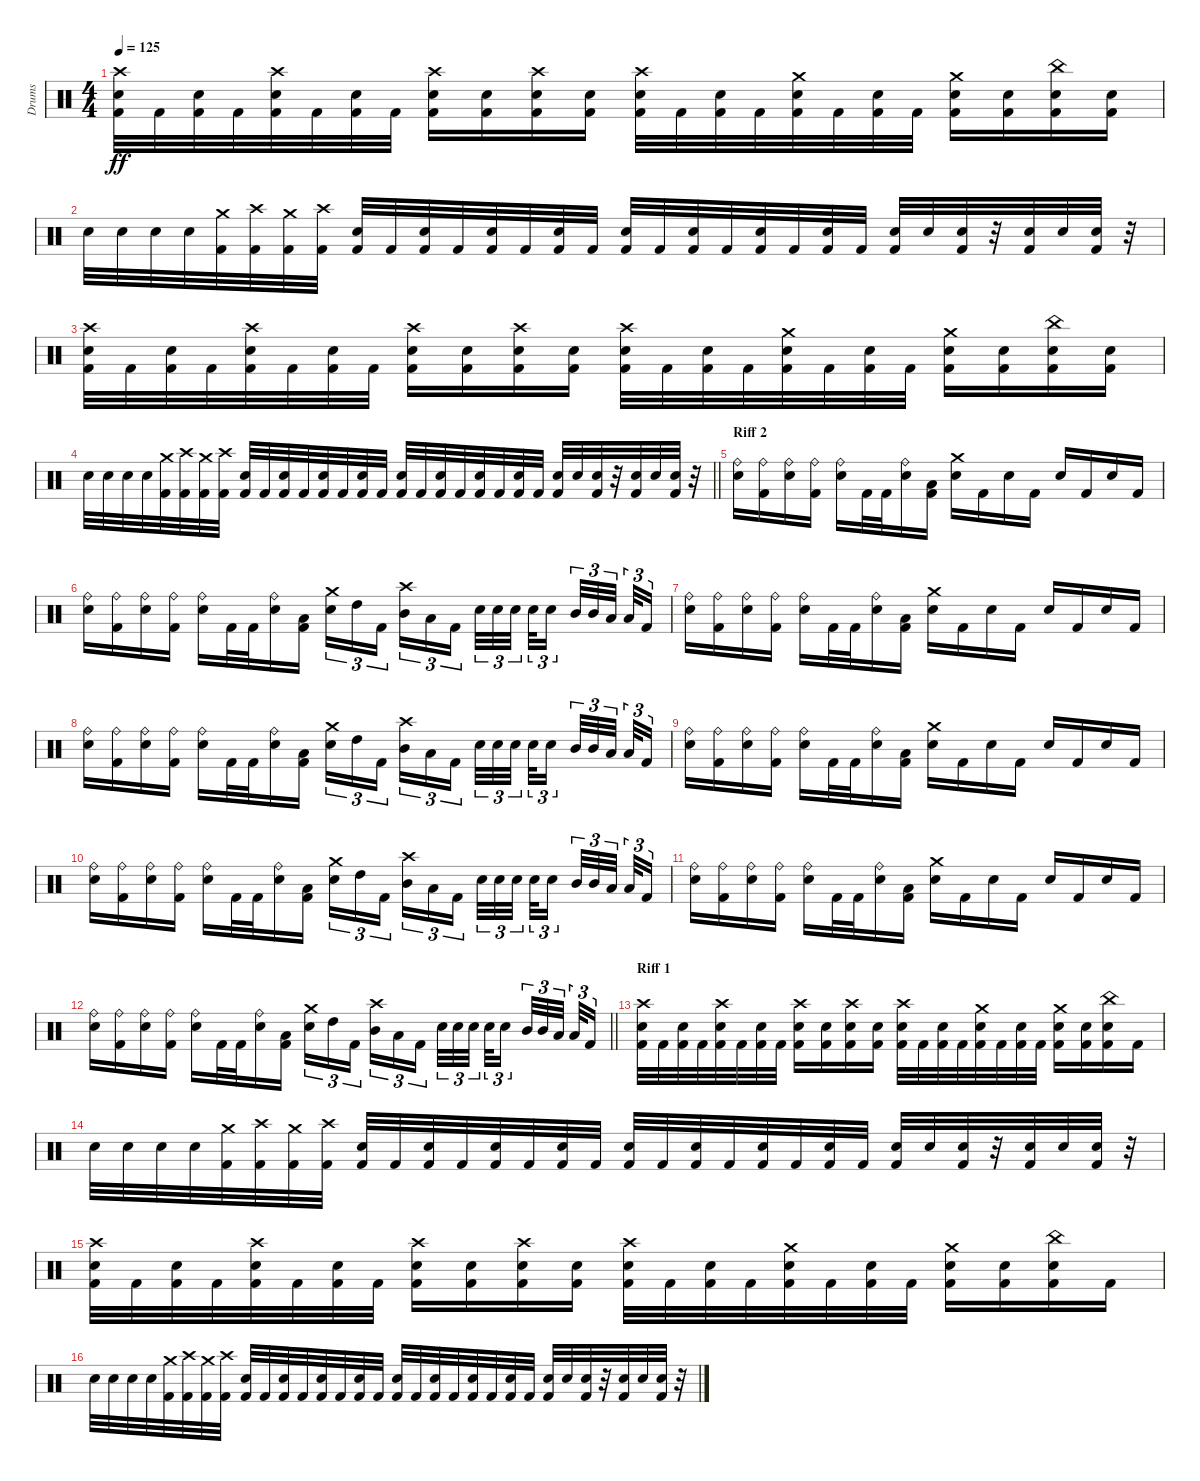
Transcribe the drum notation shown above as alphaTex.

\track ("Drums" "Drums") {instrument percussion}
\staff {score}
\articulation defaults
\ts (4 4)
\tempo 125
\clef neutral
\ks c
("Crash high (hit)" "Kick (hit) 2" "Snare (hit) 2").32{dy ff} "Kick (hit) 2".32 ("Kick (hit) 2" "Snare (hit) 2").32 "Kick (hit) 2".32 ("Crash high (hit)" "Kick (hit) 2" "Snare (hit) 2").32 "Kick (hit) 2".32 ("Kick (hit) 2" "Snare (hit) 2").32 "Kick (hit) 2".32 ("Crash high (hit)" "Kick (hit) 2" "Snare (hit) 2").16 ("Kick (hit) 2" "Snare (hit) 2").16 ("Crash high (hit)" "Kick (hit) 2" "Snare (hit) 2").16 ("Kick (hit) 2" "Snare (hit) 2").16 ("Crash high (hit)" "Kick (hit) 2" "Snare (hit) 2").32 "Kick (hit) 2".32 ("Kick (hit) 2" "Snare (hit) 2").32 "Kick (hit) 2".32 ("Crash medium (hit)" "Kick (hit) 2" "Snare (hit) 2").32 "Kick (hit) 2".32 ("Kick (hit) 2" "Snare (hit) 2").32 "Kick (hit) 2".32 ("Crash medium (hit)" "Kick (hit) 2" "Snare (hit) 2").16 ("Kick (hit) 2" "Snare (hit) 2").16 ("China (hit)" "Kick (hit) 2" "Snare (hit) 2").16 ("Kick (hit) 2" "Snare (hit) 2").16 |
"Snare (hit) 2".32 "Snare (hit) 2".32 "Snare (hit) 2".32 "Snare (hit) 2".32 ("Crash medium (hit)" "Kick (hit) 2").32 ("Crash high (hit)" "Kick (hit) 2").32 ("Crash medium (hit)" "Kick (hit) 2").32 ("Crash high (hit)" "Kick (hit) 2").32 ("Kick (hit) 2" "Snare (hit) 2").32 "Kick (hit) 2".32 ("Kick (hit) 2" "Snare (hit) 2").32 "Kick (hit) 2".32 ("Kick (hit) 2" "Snare (hit) 2").32 "Kick (hit) 2".32 ("Kick (hit) 2" "Snare (hit) 2").32 "Kick (hit) 2".32 ("Kick (hit) 2" "Snare (hit) 2").32 "Kick (hit) 2".32 ("Kick (hit) 2" "Snare (hit) 2").32 "Kick (hit) 2".32 ("Kick (hit) 2" "Snare (hit) 2").32 "Kick (hit) 2".32 ("Kick (hit) 2" "Snare (hit) 2").32 "Kick (hit) 2".32 ("Kick (hit) 2" "Snare (hit) 2").32 "Snare (hit) 2".32 ("Kick (hit) 2" "Snare (hit) 2").32 r.32 ("Kick (hit) 2" "Snare (hit) 2").32 "Snare (hit) 2".32 ("Kick (hit) 2" "Snare (hit) 2").32 r.32 |
("Crash high (hit)" "Kick (hit) 2" "Snare (hit) 2").32 "Kick (hit) 2".32 ("Kick (hit) 2" "Snare (hit) 2").32 "Kick (hit) 2".32 ("Crash high (hit)" "Kick (hit) 2" "Snare (hit) 2").32 "Kick (hit) 2".32 ("Kick (hit) 2" "Snare (hit) 2").32 "Kick (hit) 2".32 ("Crash high (hit)" "Kick (hit) 2" "Snare (hit) 2").16 ("Kick (hit) 2" "Snare (hit) 2").16 ("Crash high (hit)" "Kick (hit) 2" "Snare (hit) 2").16 ("Kick (hit) 2" "Snare (hit) 2").16 ("Crash high (hit)" "Kick (hit) 2" "Snare (hit) 2").32 "Kick (hit) 2".32 ("Kick (hit) 2" "Snare (hit) 2").32 "Kick (hit) 2".32 ("Crash medium (hit)" "Kick (hit) 2" "Snare (hit) 2").32 "Kick (hit) 2".32 ("Kick (hit) 2" "Snare (hit) 2").32 "Kick (hit) 2".32 ("Crash medium (hit)" "Kick (hit) 2" "Snare (hit) 2").16 ("Kick (hit) 2" "Snare (hit) 2").16 ("China (hit)" "Kick (hit) 2" "Snare (hit) 2").16 ("Kick (hit) 2" "Snare (hit) 2").16 |
\barLineRight lightlight "Snare (hit) 2".32 "Snare (hit) 2".32 "Snare (hit) 2".32 "Snare (hit) 2".32
("Crash medium (hit)" "Kick (hit) 2").32 ("Crash high (hit)" "Kick (hit) 2").32 ("Crash medium (hit)" "Kick (hit) 2").32 ("Crash high (hit)" "Kick (hit) 2").32 ("Kick (hit) 2" "Snare (hit) 2").32 "Kick (hit) 2".32 ("Kick (hit) 2" "Snare (hit) 2").32 "Kick (hit) 2".32 ("Kick (hit) 2" "Snare (hit) 2").32 "Kick (hit) 2".32 ("Kick (hit) 2" "Snare (hit) 2").32 "Kick (hit) 2".32 ("Kick (hit) 2" "Snare (hit) 2").32 "Kick (hit) 2".32 ("Kick (hit) 2" "Snare (hit) 2").32 "Kick (hit) 2".32 ("Kick (hit) 2" "Snare (hit) 2").32 "Kick (hit) 2".32 ("Kick (hit) 2" "Snare (hit) 2").32 "Kick (hit) 2".32 ("Kick (hit) 2" "Snare (hit) 2").32 "Snare (hit) 2".32 ("Kick (hit) 2" "Snare (hit) 2").32 r.32 ("Kick (hit) 2" "Snare (hit) 2").32 "Snare (hit) 2".32 ("Kick (hit) 2" "Snare (hit) 2").32 r.32 |
\section ("" "Riff 2")
("Snare (hit) 2" "Ride (bell)").16 ("Kick (hit) 2" "Ride (bell)").16 ("Snare (hit) 2" "Ride (bell)").16 ("Kick (hit) 2" "Ride (bell)").16 ("Snare (hit) 2" "Ride (bell)").16 "Kick (hit) 2".32 "Kick (hit) 2".32 ("Snare (hit) 2" "Ride (bell)").16 ("Kick (hit) 2" "Low Tom (hit)").16 ("Crash medium (hit)" "Snare (hit) 2").16 "Kick (hit) 2".16 "Snare (hit) 2".16 "Kick (hit) 2".16 "Snare (hit) 2".16 "Kick (hit) 2".16 "Snare (hit) 2".16 "Kick (hit) 2".16 |
("Snare (hit) 2" "Ride (bell)").16 ("Kick (hit) 2" "Ride (bell)").16 ("Snare (hit) 2" "Ride (bell)").16 ("Kick (hit) 2" "Ride (bell)").16 ("Snare (hit) 2" "Ride (bell)").16 "Kick (hit) 2".32 "Kick (hit) 2".32 ("Snare (hit) 2" "Ride (bell)").16 ("Kick (hit) 2" "Low Tom (hit)").16 ("Crash medium (hit)" "Snare (hit) 2").16{tu (3 2)} "High Tom (hit)".16{tu (3 2)} "Kick (hit) 2".16{tu (3 2) beam splitsecondary} ("Crash high (hit)" "Mid Tom (hit)").16{tu (3 2)} "Low Tom (hit)".16{tu (3 2)} "Kick (hit) 2".16{tu (3 2)} "Snare (hit) 2".32{tu (3 2)} "Snare (hit) 2".32{tu (3 2)} "Snare (hit) 2".32{tu (3 2) beam splitsecondary} "Snare (hit) 2".32{tu (3 2)} "Snare (hit) 2".16{tu (3 2) beam splitsecondary} "Mid Tom (hit)".32{tu (3 2)} "Mid Tom (hit)".32{tu (3 2)} "Low Tom (hit)".32{tu (3 2) beam splitsecondary} "Low Tom (hit)".32{tu (3 2)} "Kick (hit) 2".16{tu (3 2)} |
("Snare (hit) 2" "Ride (bell)").16 ("Kick (hit) 2" "Ride (bell)").16 ("Snare (hit) 2" "Ride (bell)").16 ("Kick (hit) 2" "Ride (bell)").16 ("Snare (hit) 2" "Ride (bell)").16 "Kick (hit) 2".32 "Kick (hit) 2".32 ("Snare (hit) 2" "Ride (bell)").16 ("Kick (hit) 2" "Low Tom (hit)").16 ("Crash medium (hit)" "Snare (hit) 2").16 "Kick (hit) 2".16 "Snare (hit) 2".16 "Kick (hit) 2".16 "Snare (hit) 2".16 "Kick (hit) 2".16 "Snare (hit) 2".16 "Kick (hit) 2".16 |
("Snare (hit) 2" "Ride (bell)").16 ("Kick (hit) 2" "Ride (bell)").16 ("Snare (hit) 2" "Ride (bell)").16 ("Kick (hit) 2" "Ride (bell)").16 ("Snare (hit) 2" "Ride (bell)").16 "Kick (hit) 2".32 "Kick (hit) 2".32 ("Snare (hit) 2" "Ride (bell)").16 ("Kick (hit) 2" "Low Tom (hit)").16 ("Crash medium (hit)" "Snare (hit) 2").16{tu (3 2)} "High Tom (hit)".16{tu (3 2)} "Kick (hit) 2".16{tu (3 2) beam splitsecondary} ("Crash high (hit)" "Mid Tom (hit)").16{tu (3 2)} "Low Tom (hit)".16{tu (3 2)} "Kick (hit) 2".16{tu (3 2)} "Snare (hit) 2".32{tu (3 2)} "Snare (hit) 2".32{tu (3 2)} "Snare (hit) 2".32{tu (3 2) beam splitsecondary} "Snare (hit) 2".32{tu (3 2)} "Snare (hit) 2".16{tu (3 2) beam splitsecondary} "Mid Tom (hit)".32{tu (3 2)} "Mid Tom (hit)".32{tu (3 2)} "Low Tom (hit)".32{tu (3 2) beam splitsecondary} "Low Tom (hit)".32{tu (3 2)} "Kick (hit) 2".16{tu (3 2)} |
("Snare (hit) 2" "Ride (bell)").16 ("Kick (hit) 2" "Ride (bell)").16 ("Snare (hit) 2" "Ride (bell)").16 ("Kick (hit) 2" "Ride (bell)").16 ("Snare (hit) 2" "Ride (bell)").16 "Kick (hit) 2".32 "Kick (hit) 2".32 ("Snare (hit) 2" "Ride (bell)").16 ("Kick (hit) 2" "Low Tom (hit)").16 ("Crash medium (hit)" "Snare (hit) 2").16 "Kick (hit) 2".16 "Snare (hit) 2".16 "Kick (hit) 2".16 "Snare (hit) 2".16 "Kick (hit) 2".16 "Snare (hit) 2".16 "Kick (hit) 2".16 |
("Snare (hit) 2" "Ride (bell)").16 ("Kick (hit) 2" "Ride (bell)").16 ("Snare (hit) 2" "Ride (bell)").16 ("Kick (hit) 2" "Ride (bell)").16 ("Snare (hit) 2" "Ride (bell)").16 "Kick (hit) 2".32 "Kick (hit) 2".32 ("Snare (hit) 2" "Ride (bell)").16 ("Kick (hit) 2" "Low Tom (hit)").16 ("Crash medium (hit)" "Snare (hit) 2").16{tu (3 2)} "High Tom (hit)".16{tu (3 2)} "Kick (hit) 2".16{tu (3 2) beam splitsecondary} ("Crash high (hit)" "Mid Tom (hit)").16{tu (3 2)} "Low Tom (hit)".16{tu (3 2)} "Kick (hit) 2".16{tu (3 2)} "Snare (hit) 2".32{tu (3 2)} "Snare (hit) 2".32{tu (3 2)} "Snare (hit) 2".32{tu (3 2) beam splitsecondary} "Snare (hit) 2".32{tu (3 2)} "Snare (hit) 2".16{tu (3 2) beam splitsecondary} "Mid Tom (hit)".32{tu (3 2)} "Mid Tom (hit)".32{tu (3 2)} "Low Tom (hit)".32{tu (3 2) beam splitsecondary} "Low Tom (hit)".32{tu (3 2)} "Kick (hit) 2".16{tu (3 2)} |
("Snare (hit) 2" "Ride (bell)").16 ("Kick (hit) 2" "Ride (bell)").16 ("Snare (hit) 2" "Ride (bell)").16 ("Kick (hit) 2" "Ride (bell)").16 ("Snare (hit) 2" "Ride (bell)").16 "Kick (hit) 2".32 "Kick (hit) 2".32 ("Snare (hit) 2" "Ride (bell)").16 ("Kick (hit) 2" "Low Tom (hit)").16 ("Crash medium (hit)" "Snare (hit) 2").16 "Kick (hit) 2".16 "Snare (hit) 2".16 "Kick (hit) 2".16 "Snare (hit) 2".16 "Kick (hit) 2".16 "Snare (hit) 2".16 "Kick (hit) 2".16 |
\barLineRight lightlight
("Snare (hit) 2" "Ride (bell)").16 ("Kick (hit) 2" "Ride (bell)").16 ("Snare (hit) 2" "Ride (bell)").16 ("Kick (hit) 2" "Ride (bell)").16 ("Snare (hit) 2" "Ride (bell)").16 "Kick (hit) 2".32 "Kick (hit) 2".32 ("Snare (hit) 2" "Ride (bell)").16 ("Kick (hit) 2" "Low Tom (hit)").16 ("Crash medium (hit)" "Snare (hit) 2").16{tu (3 2)} "High Tom (hit)".16{tu (3 2)} "Kick (hit) 2".16{tu (3 2) beam splitsecondary} ("Crash high (hit)" "Mid Tom (hit)").16{tu (3 2)} "Low Tom (hit)".16{tu (3 2)} "Kick (hit) 2".16{tu (3 2)} "Snare (hit) 2".32{tu (3 2)} "Snare (hit) 2".32{tu (3 2)} "Snare (hit) 2".32{tu (3 2) beam splitsecondary} "Snare (hit) 2".32{tu (3 2)} "Snare (hit) 2".16{tu (3 2) beam splitsecondary} "Mid Tom (hit)".32{tu (3 2)} "Mid Tom (hit)".32{tu (3 2)} "Low Tom (hit)".32{tu (3 2) beam splitsecondary} "Low Tom (hit)".32{tu (3 2)} "Kick (hit) 2".16{tu (3 2)} |
\section ("" "Riff 1")
("Crash high (hit)" "Kick (hit) 2" "Snare (hit) 2").32 "Kick (hit) 2".32 ("Kick (hit) 2" "Snare (hit) 2").32 "Kick (hit) 2".32 ("Crash high (hit)" "Kick (hit) 2" "Snare (hit) 2").32 "Kick (hit) 2".32 ("Kick (hit) 2" "Snare (hit) 2").32 "Kick (hit) 2".32 ("Crash high (hit)" "Kick (hit) 2" "Snare (hit) 2").16 ("Kick (hit) 2" "Snare (hit) 2").16 ("Crash high (hit)" "Kick (hit) 2" "Snare (hit) 2").16 ("Kick (hit) 2" "Snare (hit) 2").16 ("Crash high (hit)" "Kick (hit) 2" "Snare (hit) 2").32 "Kick (hit) 2".32 ("Kick (hit) 2" "Snare (hit) 2").32 "Kick (hit) 2".32 ("Crash medium (hit)" "Kick (hit) 2" "Snare (hit) 2").32 "Kick (hit) 2".32 ("Kick (hit) 2" "Snare (hit) 2").32 "Kick (hit) 2".32 ("Crash medium (hit)" "Kick (hit) 2" "Snare (hit) 2").16 ("Kick (hit) 2" "Snare (hit) 2").16 ("China (hit)" "Kick (hit) 2" "Snare (hit) 2").16 "Kick (hit) 2".16 |
"Snare (hit) 2".32 "Snare (hit) 2".32 "Snare (hit) 2".32 "Snare (hit) 2".32 ("Crash medium (hit)" "Kick (hit) 2").32 ("Crash high (hit)" "Kick (hit) 2").32 ("Crash medium (hit)" "Kick (hit) 2").32 ("Crash high (hit)" "Kick (hit) 2").32 ("Kick (hit) 2" "Snare (hit) 2").32 "Kick (hit) 2".32 ("Kick (hit) 2" "Snare (hit) 2").32 "Kick (hit) 2".32 ("Kick (hit) 2" "Snare (hit) 2").32 "Kick (hit) 2".32 ("Kick (hit) 2" "Snare (hit) 2").32 "Kick (hit) 2".32 ("Kick (hit) 2" "Snare (hit) 2").32 "Kick (hit) 2".32 ("Kick (hit) 2" "Snare (hit) 2").32 "Kick (hit) 2".32 ("Kick (hit) 2" "Snare (hit) 2").32 "Kick (hit) 2".32 ("Kick (hit) 2" "Snare (hit) 2").32 "Kick (hit) 2".32 ("Kick (hit) 2" "Snare (hit) 2").32 "Snare (hit) 2".32 ("Kick (hit) 2" "Snare (hit) 2").32 r.32 ("Kick (hit) 2" "Snare (hit) 2").32 "Snare (hit) 2".32 ("Kick (hit) 2" "Snare (hit) 2").32 r.32 |
("Crash high (hit)" "Kick (hit) 2" "Snare (hit) 2").32 "Kick (hit) 2".32 ("Kick (hit) 2" "Snare (hit) 2").32 "Kick (hit) 2".32 ("Crash high (hit)" "Kick (hit) 2" "Snare (hit) 2").32 "Kick (hit) 2".32 ("Kick (hit) 2" "Snare (hit) 2").32 "Kick (hit) 2".32 ("Crash high (hit)" "Kick (hit) 2" "Snare (hit) 2").16 ("Kick (hit) 2" "Snare (hit) 2").16 ("Crash high (hit)" "Kick (hit) 2" "Snare (hit) 2").16 ("Kick (hit) 2" "Snare (hit) 2").16 ("Crash high (hit)" "Kick (hit) 2" "Snare (hit) 2").32 "Kick (hit) 2".32 ("Kick (hit) 2" "Snare (hit) 2").32 "Kick (hit) 2".32 ("Crash medium (hit)" "Kick (hit) 2" "Snare (hit) 2").32 "Kick (hit) 2".32 ("Kick (hit) 2" "Snare (hit) 2").32 "Kick (hit) 2".32 ("Crash medium (hit)" "Kick (hit) 2" "Snare (hit) 2").16 ("Kick (hit) 2" "Snare (hit) 2").16 ("China (hit)" "Kick (hit) 2" "Snare (hit) 2").16 "Kick (hit) 2".16 |
"Snare (hit) 2".32 "Snare (hit) 2".32 "Snare (hit) 2".32 "Snare (hit) 2".32 ("Crash medium (hit)" "Kick (hit) 2").32 ("Crash high (hit)" "Kick (hit) 2").32 ("Crash medium (hit)" "Kick (hit) 2").32 ("Crash high (hit)" "Kick (hit) 2").32 ("Kick (hit) 2" "Snare (hit) 2").32 "Kick (hit) 2".32 ("Kick (hit) 2" "Snare (hit) 2").32 "Kick (hit) 2".32 ("Kick (hit) 2" "Snare (hit) 2").32 "Kick (hit) 2".32 ("Kick (hit) 2" "Snare (hit) 2").32 "Kick (hit) 2".32 ("Kick (hit) 2" "Snare (hit) 2").32 "Kick (hit) 2".32 ("Kick (hit) 2" "Snare (hit) 2").32 "Kick (hit) 2".32 ("Kick (hit) 2" "Snare (hit) 2").32 "Kick (hit) 2".32 ("Kick (hit) 2" "Snare (hit) 2").32 "Kick (hit) 2".32 ("Kick (hit) 2" "Snare (hit) 2").32 "Snare (hit) 2".32 ("Kick (hit) 2" "Snare (hit) 2").32 r.32 ("Kick (hit) 2" "Snare (hit) 2").32 "Snare (hit) 2".32 ("Kick (hit) 2" "Snare (hit) 2").32 r.32
